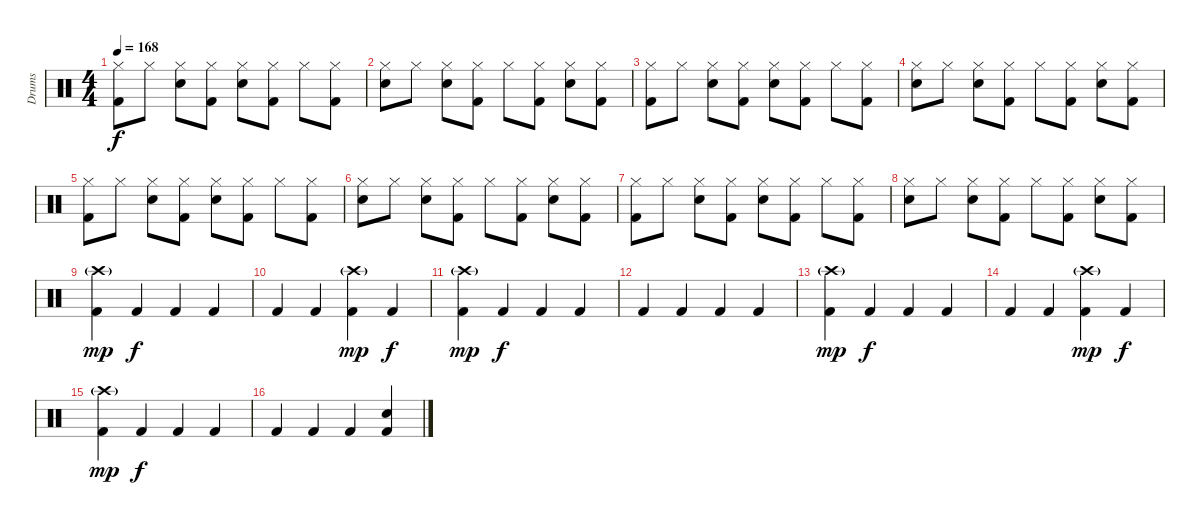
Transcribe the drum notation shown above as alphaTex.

\track ("Drums" "Drums") {instrument percussion}
\staff {score}
\articulation defaults
\ts (4 4)
\tempo 168
\clef neutral
\ks c
("Hi-Hat (closed)" "Kick (hit) 2").8{dy f} "Hi-Hat (closed)".8 ("Hi-Hat (closed)" "Snare (hit) 2").8 ("Hi-Hat (closed)" "Kick (hit) 2").8 ("Hi-Hat (closed)" "Snare (hit) 2").8 ("Hi-Hat (closed)" "Kick (hit) 2").8 "Hi-Hat (closed)".8 ("Hi-Hat (closed)" "Kick (hit) 2").8 |
("Hi-Hat (closed)" "Snare (hit) 2").8 "Hi-Hat (closed)".8 ("Hi-Hat (closed)" "Snare (hit) 2").8 ("Hi-Hat (closed)" "Kick (hit) 2").8 "Hi-Hat (closed)".8 ("Hi-Hat (closed)" "Kick (hit) 2").8 ("Hi-Hat (closed)" "Snare (hit) 2").8 ("Hi-Hat (closed)" "Kick (hit) 2").8 |
("Hi-Hat (closed)" "Kick (hit) 2").8 "Hi-Hat (closed)".8 ("Hi-Hat (closed)" "Snare (hit) 2").8 ("Hi-Hat (closed)" "Kick (hit) 2").8 ("Hi-Hat (closed)" "Snare (hit) 2").8 ("Hi-Hat (closed)" "Kick (hit) 2").8 "Hi-Hat (closed)".8 ("Hi-Hat (closed)" "Kick (hit) 2").8 |
("Hi-Hat (closed)" "Snare (hit) 2").8 "Hi-Hat (closed)".8 ("Hi-Hat (closed)" "Snare (hit) 2").8 ("Hi-Hat (closed)" "Kick (hit) 2").8 "Hi-Hat (closed)".8 ("Hi-Hat (closed)" "Kick (hit) 2").8 ("Hi-Hat (closed)" "Snare (hit) 2").8 ("Hi-Hat (closed)" "Kick (hit) 2").8 |
("Hi-Hat (closed)" "Kick (hit) 2").8 "Hi-Hat (closed)".8 ("Hi-Hat (closed)" "Snare (hit) 2").8 ("Hi-Hat (closed)" "Kick (hit) 2").8 ("Hi-Hat (closed)" "Snare (hit) 2").8 ("Hi-Hat (closed)" "Kick (hit) 2").8 "Hi-Hat (closed)".8 ("Hi-Hat (closed)" "Kick (hit) 2").8 |
("Hi-Hat (closed)" "Snare (hit) 2").8 "Hi-Hat (closed)".8 ("Hi-Hat (closed)" "Snare (hit) 2").8 ("Hi-Hat (closed)" "Kick (hit) 2").8 "Hi-Hat (closed)".8 ("Hi-Hat (closed)" "Kick (hit) 2").8 ("Hi-Hat (closed)" "Snare (hit) 2").8 ("Hi-Hat (closed)" "Kick (hit) 2").8 |
("Hi-Hat (closed)" "Kick (hit) 2").8 "Hi-Hat (closed)".8 ("Hi-Hat (closed)" "Snare (hit) 2").8 ("Hi-Hat (closed)" "Kick (hit) 2").8 ("Hi-Hat (closed)" "Snare (hit) 2").8 ("Hi-Hat (closed)" "Kick (hit) 2").8 "Hi-Hat (closed)".8 ("Hi-Hat (closed)" "Kick (hit) 2").8 |
("Hi-Hat (closed)" "Snare (hit) 2").8 "Hi-Hat (closed)".8 ("Hi-Hat (closed)" "Snare (hit) 2").8 ("Hi-Hat (closed)" "Kick (hit) 2").8 "Hi-Hat (closed)".8 ("Hi-Hat (closed)" "Kick (hit) 2").8 ("Hi-Hat (closed)" "Snare (hit) 2").8 ("Hi-Hat (closed)" "Kick (hit) 2").8 |
("Crash high (hit)"{g} "Kick (hit) 2").4{dy mp} "Kick (hit) 2".4{dy f} "Kick (hit) 2".4 "Kick (hit) 2".4 |
"Kick (hit) 2".4 "Kick (hit) 2".4 ("Crash high (hit)"{g} "Kick (hit) 2").4{dy mp} "Kick (hit) 2".4{dy f} |
("Crash high (hit)"{g} "Kick (hit) 2").4{dy mp} "Kick (hit) 2".4{dy f} "Kick (hit) 2".4 "Kick (hit) 2".4 |
"Kick (hit) 2".4 "Kick (hit) 2".4 "Kick (hit) 2".4 "Kick (hit) 2".4 |
("Crash high (hit)"{g} "Kick (hit) 2").4{dy mp} "Kick (hit) 2".4{dy f} "Kick (hit) 2".4 "Kick (hit) 2".4 |
"Kick (hit) 2".4 "Kick (hit) 2".4 ("Crash high (hit)"{g} "Kick (hit) 2").4{dy mp} "Kick (hit) 2".4{dy f} |
("Crash high (hit)"{g} "Kick (hit) 2").4{dy mp} "Kick (hit) 2".4{dy f} "Kick (hit) 2".4 "Kick (hit) 2".4 |
"Kick (hit) 2".4 "Kick (hit) 2".4 "Kick (hit) 2".4 ("Snare (hit) 2" "Kick (hit) 2").4
